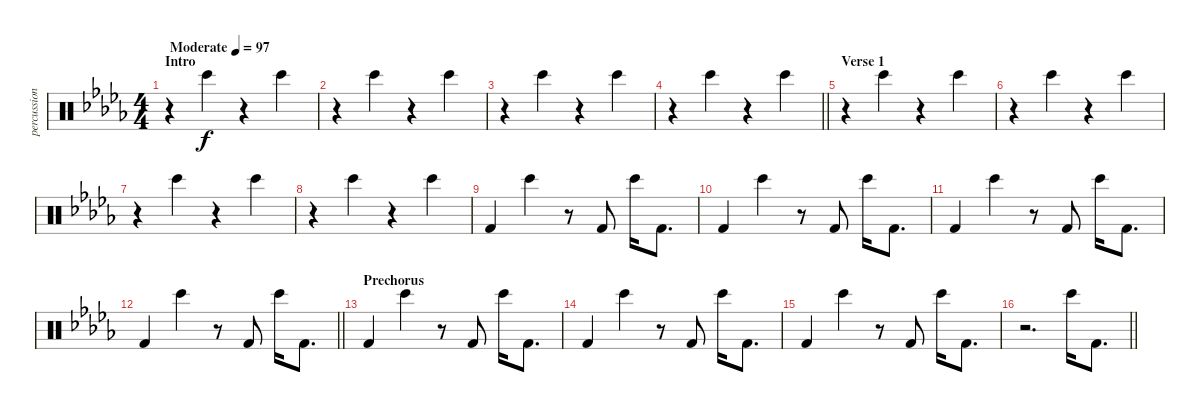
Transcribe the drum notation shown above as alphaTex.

\track ("percussion" "percussion") {instrument percussion}
\staff {score}
\articulation defaults
\ts (4 4)
\section ("" "Intro")
\tempo (97 "Moderate")
\clef neutral
\ks bbminor
r.4{dy f} "Bongo High (hit)".4 r.4 "Bongo High (hit)".4 |
r.4 "Bongo High (hit)".4 r.4 "Bongo High (hit)".4 |
r.4 "Bongo High (hit)".4 r.4 "Bongo High (hit)".4 |
\barLineRight lightlight
r.4 "Bongo High (hit)".4 r.4 "Bongo High (hit)".4 |
\section ("" "Verse 1")
r.4 "Bongo High (hit)".4 r.4 "Bongo High (hit)".4 |
r.4 "Bongo High (hit)".4 r.4 "Bongo High (hit)".4 |
r.4 "Bongo High (hit)".4 r.4 "Bongo High (hit)".4 |
r.4 "Bongo High (hit)".4 r.4 "Bongo High (hit)".4 |
"Kick (hit) 2".4 "Bongo High (hit)".4 r.8 "Kick (hit) 2".8 "Bongo High (hit)".16 "Kick (hit) 2".8{d} |
"Kick (hit) 2".4 "Bongo High (hit)".4 r.8 "Kick (hit) 2".8 "Bongo High (hit)".16 "Kick (hit) 2".8{d} |
"Kick (hit) 2".4 "Bongo High (hit)".4 r.8 "Kick (hit) 2".8 "Bongo High (hit)".16 "Kick (hit) 2".8{d} |
\barLineRight lightlight "Kick (hit) 2".4 "Bongo High (hit)".4
r.8 "Kick (hit) 2".8 "Bongo High (hit)".16 "Kick (hit) 2".8{d} |
\section ("" "Prechorus")
"Kick (hit) 2".4 "Bongo High (hit)".4 r.8 "Kick (hit) 2".8 "Bongo High (hit)".16 "Kick (hit) 2".8{d} |
"Kick (hit) 2".4 "Bongo High (hit)".4 r.8 "Kick (hit) 2".8 "Bongo High (hit)".16 "Kick (hit) 2".8{d} |
"Kick (hit) 2".4 "Bongo High (hit)".4 r.8 "Kick (hit) 2".8 "Bongo High (hit)".16 "Kick (hit) 2".8{d} |
\barLineRight lightlight
r.2{d} "Bongo High (hit)".16 "Kick (hit) 2".8{d}
